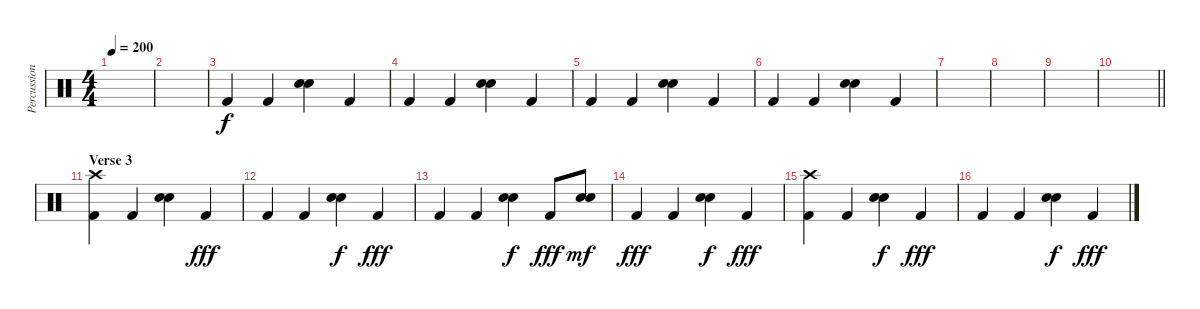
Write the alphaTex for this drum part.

\track ("Percussions" "Percussion") {instrument percussion}
\staff {score}
\articulation defaults
\ts (4 4)
\tempo 200
\clef neutral
\ks c
|
|
"Kick (hit) 2".4 "Kick (hit) 2".4 ("Electric Snare (hit)" "Electric Snare (hit)").4 "Kick (hit) 2".4 |
"Kick (hit) 2".4 "Kick (hit) 2".4 ("Electric Snare (hit)" "Electric Snare (hit)").4 "Kick (hit) 2".4 |
"Kick (hit) 2".4 "Kick (hit) 2".4 ("Electric Snare (hit)" "Electric Snare (hit)").4 "Kick (hit) 2".4 |
"Kick (hit) 2".4 "Kick (hit) 2".4 ("Electric Snare (hit)" "Electric Snare (hit)").4 "Kick (hit) 2".4 |
|
|
|
\barLineRight lightlight
|
\section ("" "Verse 3")
("Crash high (hit)" "Kick (hit) 2").4 "Kick (hit) 2".4 ("Electric Snare (hit)" "Electric Snare (hit)").4{dy f} "Kick (hit) 2".4{dy fff} |
"Kick (hit) 2".4 "Kick (hit) 2".4 ("Electric Snare (hit)" "Electric Snare (hit)").4{dy f} "Kick (hit) 2".4{dy fff} |
"Kick (hit) 2".4 "Kick (hit) 2".4 ("Electric Snare (hit)" "Electric Snare (hit)").4{dy f} "Kick (hit) 2".8{dy fff} ("Electric Snare (hit)" "Electric Snare (hit)").8{dy mf} |
"Kick (hit) 2".4{dy fff} "Kick (hit) 2".4 ("Electric Snare (hit)" "Electric Snare (hit)").4{dy f} "Kick (hit) 2".4{dy fff} |
("Crash high (hit)" "Kick (hit) 2").4 "Kick (hit) 2".4 ("Electric Snare (hit)" "Electric Snare (hit)").4{dy f} "Kick (hit) 2".4{dy fff} |
"Kick (hit) 2".4 "Kick (hit) 2".4 ("Electric Snare (hit)" "Electric Snare (hit)").4{dy f} "Kick (hit) 2".4{dy fff}
